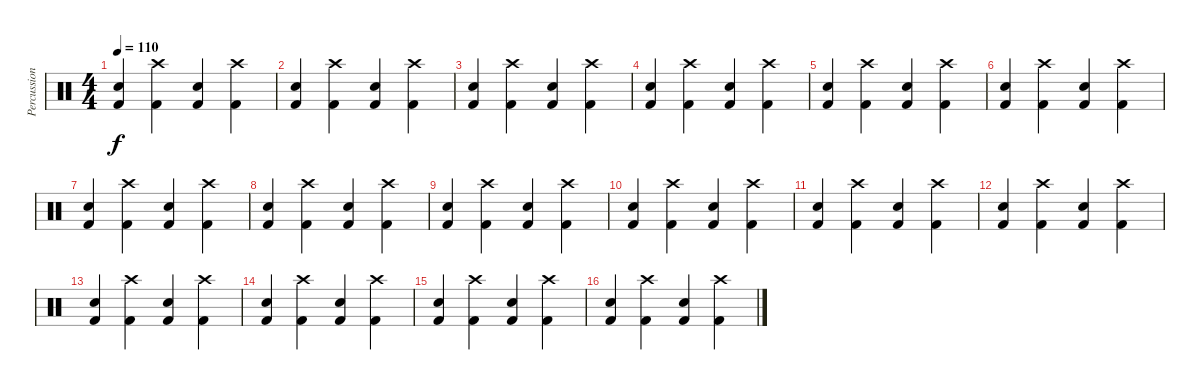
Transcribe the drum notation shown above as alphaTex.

\track ("Percussion" "Percussion") {instrument percussion}
\staff {score}
\articulation defaults
\ts (4 4)
\tempo 110
\clef neutral
\ks c
("Snare (hit) 2" "Kick (hit) 2").4{dy f} ("Crash high (hit)" "Kick (hit) 2").4 ("Snare (hit) 2" "Kick (hit) 2").4 ("Crash high (hit)" "Kick (hit) 2").4 |
("Snare (hit) 2" "Kick (hit) 2").4 ("Crash high (hit)" "Kick (hit) 2").4 ("Snare (hit) 2" "Kick (hit) 2").4 ("Crash high (hit)" "Kick (hit) 2").4 |
("Snare (hit) 2" "Kick (hit) 2").4 ("Crash high (hit)" "Kick (hit) 2").4 ("Snare (hit) 2" "Kick (hit) 2").4 ("Crash high (hit)" "Kick (hit) 2").4 |
("Snare (hit) 2" "Kick (hit) 2").4 ("Crash high (hit)" "Kick (hit) 2").4 ("Snare (hit) 2" "Kick (hit) 2").4 ("Crash high (hit)" "Kick (hit) 2").4 |
("Snare (hit) 2" "Kick (hit) 2").4 ("Crash high (hit)" "Kick (hit) 2").4 ("Snare (hit) 2" "Kick (hit) 2").4 ("Crash high (hit)" "Kick (hit) 2").4 |
("Snare (hit) 2" "Kick (hit) 2").4 ("Crash high (hit)" "Kick (hit) 2").4 ("Snare (hit) 2" "Kick (hit) 2").4 ("Crash high (hit)" "Kick (hit) 2").4 |
("Snare (hit) 2" "Kick (hit) 2").4 ("Crash high (hit)" "Kick (hit) 2").4 ("Snare (hit) 2" "Kick (hit) 2").4 ("Crash high (hit)" "Kick (hit) 2").4 |
("Snare (hit) 2" "Kick (hit) 2").4 ("Crash high (hit)" "Kick (hit) 2").4 ("Snare (hit) 2" "Kick (hit) 2").4 ("Crash high (hit)" "Kick (hit) 2").4 |
("Snare (hit) 2" "Kick (hit) 2").4 ("Crash high (hit)" "Kick (hit) 2").4 ("Snare (hit) 2" "Kick (hit) 2").4 ("Crash high (hit)" "Kick (hit) 2").4 |
("Snare (hit) 2" "Kick (hit) 2").4 ("Crash high (hit)" "Kick (hit) 2").4 ("Snare (hit) 2" "Kick (hit) 2").4 ("Crash high (hit)" "Kick (hit) 2").4 |
("Snare (hit) 2" "Kick (hit) 2").4 ("Crash high (hit)" "Kick (hit) 2").4 ("Snare (hit) 2" "Kick (hit) 2").4 ("Crash high (hit)" "Kick (hit) 2").4 |
("Snare (hit) 2" "Kick (hit) 2").4 ("Crash high (hit)" "Kick (hit) 2").4 ("Snare (hit) 2" "Kick (hit) 2").4 ("Crash high (hit)" "Kick (hit) 2").4 |
("Snare (hit) 2" "Kick (hit) 2").4 ("Crash high (hit)" "Kick (hit) 2").4 ("Snare (hit) 2" "Kick (hit) 2").4 ("Crash high (hit)" "Kick (hit) 2").4 |
("Snare (hit) 2" "Kick (hit) 2").4 ("Crash high (hit)" "Kick (hit) 2").4 ("Snare (hit) 2" "Kick (hit) 2").4 ("Crash high (hit)" "Kick (hit) 2").4 |
("Snare (hit) 2" "Kick (hit) 2").4 ("Crash high (hit)" "Kick (hit) 2").4 ("Snare (hit) 2" "Kick (hit) 2").4 ("Crash high (hit)" "Kick (hit) 2").4 |
("Snare (hit) 2" "Kick (hit) 2").4 ("Crash high (hit)" "Kick (hit) 2").4 ("Snare (hit) 2" "Kick (hit) 2").4 ("Crash high (hit)" "Kick (hit) 2").4
